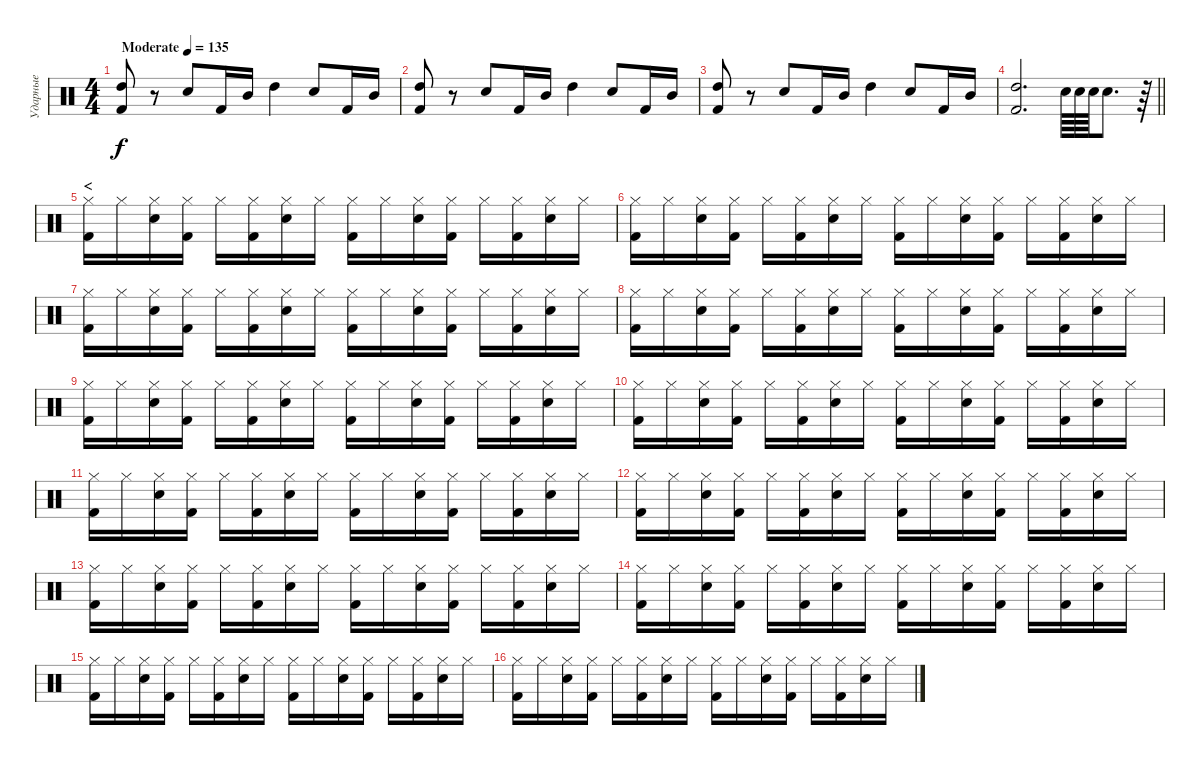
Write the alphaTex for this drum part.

\track ("Ударные" "Ударные") {instrument percussion}
\staff {score}
\articulation defaults
\ts (4 4)
\tempo (135 "Moderate")
\clef neutral
\ks c
("High Tom (hit)" "Kick (hit) 2").8{dy f} r.8 "Snare (hit) 2".8 "Kick (hit) 2".16 "Mid Tom (hit)".16 "High Tom (hit)".4 "Snare (hit) 2".8 "Kick (hit) 2".16 "Mid Tom (hit)".16 |
("High Tom (hit)" "Kick (hit) 2").8 r.8 "Snare (hit) 2".8 "Kick (hit) 2".16 "Mid Tom (hit)".16 "High Tom (hit)".4 "Snare (hit) 2".8 "Kick (hit) 2".16 "Mid Tom (hit)".16 |
("High Tom (hit)" "Kick (hit) 2").8 r.8 "Snare (hit) 2".8 "Kick (hit) 2".16 "Mid Tom (hit)".16 "High Tom (hit)".4 "Snare (hit) 2".8 "Kick (hit) 2".16 "Mid Tom (hit)".16 |
\barLineRight lightlight
("High Tom (hit)" "Kick (hit) 2").2{d} "Snare (hit) 2".64 "Snare (hit) 2".64 "Snare (hit) 2".64 "Snare (hit) 2".8{d} r.64 |
\section ("" "<")
("Hi-Hat (closed)" "Kick (hit) 2").16 "Hi-Hat (closed)".16 ("Hi-Hat (closed)" "Snare (hit) 2").16 ("Hi-Hat (closed)" "Kick (hit) 2").16 "Hi-Hat (closed)".16 ("Hi-Hat (closed)" "Kick (hit) 2").16 ("Hi-Hat (closed)" "Snare (hit) 2").16 "Hi-Hat (closed)".16 ("Hi-Hat (closed)" "Kick (hit) 2").16 "Hi-Hat (closed)".16 ("Hi-Hat (closed)" "Snare (hit) 2").16 ("Hi-Hat (closed)" "Kick (hit) 2").16 "Hi-Hat (closed)".16 ("Hi-Hat (closed)" "Kick (hit) 2").16 ("Hi-Hat (closed)" "Snare (hit) 2").16 "Hi-Hat (closed)".16 |
("Hi-Hat (closed)" "Kick (hit) 2").16 "Hi-Hat (closed)".16 ("Hi-Hat (closed)" "Snare (hit) 2").16 ("Hi-Hat (closed)" "Kick (hit) 2").16 "Hi-Hat (closed)".16 ("Hi-Hat (closed)" "Kick (hit) 2").16 ("Hi-Hat (closed)" "Snare (hit) 2").16 "Hi-Hat (closed)".16 ("Hi-Hat (closed)" "Kick (hit) 2").16 "Hi-Hat (closed)".16 ("Hi-Hat (closed)" "Snare (hit) 2").16 ("Hi-Hat (closed)" "Kick (hit) 2").16 "Hi-Hat (closed)".16 ("Hi-Hat (closed)" "Kick (hit) 2").16 ("Hi-Hat (closed)" "Snare (hit) 2").16 "Hi-Hat (closed)".16 |
("Hi-Hat (closed)" "Kick (hit) 2").16 "Hi-Hat (closed)".16 ("Hi-Hat (closed)" "Snare (hit) 2").16 ("Hi-Hat (closed)" "Kick (hit) 2").16 "Hi-Hat (closed)".16 ("Hi-Hat (closed)" "Kick (hit) 2").16 ("Hi-Hat (closed)" "Snare (hit) 2").16 "Hi-Hat (closed)".16 ("Hi-Hat (closed)" "Kick (hit) 2").16 "Hi-Hat (closed)".16 ("Hi-Hat (closed)" "Snare (hit) 2").16 ("Hi-Hat (closed)" "Kick (hit) 2").16 "Hi-Hat (closed)".16 ("Hi-Hat (closed)" "Kick (hit) 2").16 ("Hi-Hat (closed)" "Snare (hit) 2").16 "Hi-Hat (closed)".16 |
("Hi-Hat (closed)" "Kick (hit) 2").16 "Hi-Hat (closed)".16 ("Hi-Hat (closed)" "Snare (hit) 2").16 ("Hi-Hat (closed)" "Kick (hit) 2").16 "Hi-Hat (closed)".16 ("Hi-Hat (closed)" "Kick (hit) 2").16 ("Hi-Hat (closed)" "Snare (hit) 2").16 "Hi-Hat (closed)".16 ("Hi-Hat (closed)" "Kick (hit) 2").16 "Hi-Hat (closed)".16 ("Hi-Hat (closed)" "Snare (hit) 2").16 ("Hi-Hat (closed)" "Kick (hit) 2").16 "Hi-Hat (closed)".16 ("Hi-Hat (closed)" "Kick (hit) 2").16 ("Hi-Hat (closed)" "Snare (hit) 2").16 "Hi-Hat (closed)".16 |
("Hi-Hat (closed)" "Kick (hit) 2").16 "Hi-Hat (closed)".16 ("Hi-Hat (closed)" "Snare (hit) 2").16 ("Hi-Hat (closed)" "Kick (hit) 2").16 "Hi-Hat (closed)".16 ("Hi-Hat (closed)" "Kick (hit) 2").16 ("Hi-Hat (closed)" "Snare (hit) 2").16 "Hi-Hat (closed)".16 ("Hi-Hat (closed)" "Kick (hit) 2").16 "Hi-Hat (closed)".16 ("Hi-Hat (closed)" "Snare (hit) 2").16 ("Hi-Hat (closed)" "Kick (hit) 2").16 "Hi-Hat (closed)".16 ("Hi-Hat (closed)" "Kick (hit) 2").16 ("Hi-Hat (closed)" "Snare (hit) 2").16 "Hi-Hat (closed)".16 |
("Hi-Hat (closed)" "Kick (hit) 2").16 "Hi-Hat (closed)".16 ("Hi-Hat (closed)" "Snare (hit) 2").16 ("Hi-Hat (closed)" "Kick (hit) 2").16 "Hi-Hat (closed)".16 ("Hi-Hat (closed)" "Kick (hit) 2").16 ("Hi-Hat (closed)" "Snare (hit) 2").16 "Hi-Hat (closed)".16 ("Hi-Hat (closed)" "Kick (hit) 2").16 "Hi-Hat (closed)".16 ("Hi-Hat (closed)" "Snare (hit) 2").16 ("Hi-Hat (closed)" "Kick (hit) 2").16 "Hi-Hat (closed)".16 ("Hi-Hat (closed)" "Kick (hit) 2").16 ("Hi-Hat (closed)" "Snare (hit) 2").16 "Hi-Hat (closed)".16 |
("Hi-Hat (closed)" "Kick (hit) 2").16 "Hi-Hat (closed)".16 ("Hi-Hat (closed)" "Snare (hit) 2").16 ("Hi-Hat (closed)" "Kick (hit) 2").16 "Hi-Hat (closed)".16 ("Hi-Hat (closed)" "Kick (hit) 2").16 ("Hi-Hat (closed)" "Snare (hit) 2").16 "Hi-Hat (closed)".16 ("Hi-Hat (closed)" "Kick (hit) 2").16 "Hi-Hat (closed)".16 ("Hi-Hat (closed)" "Snare (hit) 2").16 ("Hi-Hat (closed)" "Kick (hit) 2").16 "Hi-Hat (closed)".16 ("Hi-Hat (closed)" "Kick (hit) 2").16 ("Hi-Hat (closed)" "Snare (hit) 2").16 "Hi-Hat (closed)".16 |
("Hi-Hat (closed)" "Kick (hit) 2").16 "Hi-Hat (closed)".16 ("Hi-Hat (closed)" "Snare (hit) 2").16 ("Hi-Hat (closed)" "Kick (hit) 2").16 "Hi-Hat (closed)".16 ("Hi-Hat (closed)" "Kick (hit) 2").16 ("Hi-Hat (closed)" "Snare (hit) 2").16 "Hi-Hat (closed)".16 ("Hi-Hat (closed)" "Kick (hit) 2").16 "Hi-Hat (closed)".16 ("Hi-Hat (closed)" "Snare (hit) 2").16 ("Hi-Hat (closed)" "Kick (hit) 2").16 "Hi-Hat (closed)".16 ("Hi-Hat (closed)" "Kick (hit) 2").16 ("Hi-Hat (closed)" "Snare (hit) 2").16 "Hi-Hat (closed)".16 |
("Hi-Hat (closed)" "Kick (hit) 2").16 "Hi-Hat (closed)".16 ("Hi-Hat (closed)" "Snare (hit) 2").16 ("Hi-Hat (closed)" "Kick (hit) 2").16 "Hi-Hat (closed)".16 ("Hi-Hat (closed)" "Kick (hit) 2").16 ("Hi-Hat (closed)" "Snare (hit) 2").16 "Hi-Hat (closed)".16 ("Hi-Hat (closed)" "Kick (hit) 2").16 "Hi-Hat (closed)".16 ("Hi-Hat (closed)" "Snare (hit) 2").16 ("Hi-Hat (closed)" "Kick (hit) 2").16 "Hi-Hat (closed)".16 ("Hi-Hat (closed)" "Kick (hit) 2").16 ("Hi-Hat (closed)" "Snare (hit) 2").16 "Hi-Hat (closed)".16 |
("Hi-Hat (closed)" "Kick (hit) 2").16 "Hi-Hat (closed)".16 ("Hi-Hat (closed)" "Snare (hit) 2").16 ("Hi-Hat (closed)" "Kick (hit) 2").16 "Hi-Hat (closed)".16 ("Hi-Hat (closed)" "Kick (hit) 2").16 ("Hi-Hat (closed)" "Snare (hit) 2").16 "Hi-Hat (closed)".16 ("Hi-Hat (closed)" "Kick (hit) 2").16 "Hi-Hat (closed)".16 ("Hi-Hat (closed)" "Snare (hit) 2").16 ("Hi-Hat (closed)" "Kick (hit) 2").16 "Hi-Hat (closed)".16 ("Hi-Hat (closed)" "Kick (hit) 2").16 ("Hi-Hat (closed)" "Snare (hit) 2").16 "Hi-Hat (closed)".16 |
("Hi-Hat (closed)" "Kick (hit) 2").16 "Hi-Hat (closed)".16 ("Hi-Hat (closed)" "Snare (hit) 2").16 ("Hi-Hat (closed)" "Kick (hit) 2").16 "Hi-Hat (closed)".16 ("Hi-Hat (closed)" "Kick (hit) 2").16 ("Hi-Hat (closed)" "Snare (hit) 2").16 "Hi-Hat (closed)".16 ("Hi-Hat (closed)" "Kick (hit) 2").16 "Hi-Hat (closed)".16 ("Hi-Hat (closed)" "Snare (hit) 2").16 ("Hi-Hat (closed)" "Kick (hit) 2").16 "Hi-Hat (closed)".16 ("Hi-Hat (closed)" "Kick (hit) 2").16 ("Hi-Hat (closed)" "Snare (hit) 2").16 "Hi-Hat (closed)".16 |
("Hi-Hat (closed)" "Kick (hit) 2").16 "Hi-Hat (closed)".16 ("Hi-Hat (closed)" "Snare (hit) 2").16 ("Hi-Hat (closed)" "Kick (hit) 2").16 "Hi-Hat (closed)".16 ("Hi-Hat (closed)" "Kick (hit) 2").16 ("Hi-Hat (closed)" "Snare (hit) 2").16 "Hi-Hat (closed)".16 ("Hi-Hat (closed)" "Kick (hit) 2").16 "Hi-Hat (closed)".16 ("Hi-Hat (closed)" "Snare (hit) 2").16 ("Hi-Hat (closed)" "Kick (hit) 2").16 "Hi-Hat (closed)".16 ("Hi-Hat (closed)" "Kick (hit) 2").16 ("Hi-Hat (closed)" "Snare (hit) 2").16 "Hi-Hat (closed)".16
